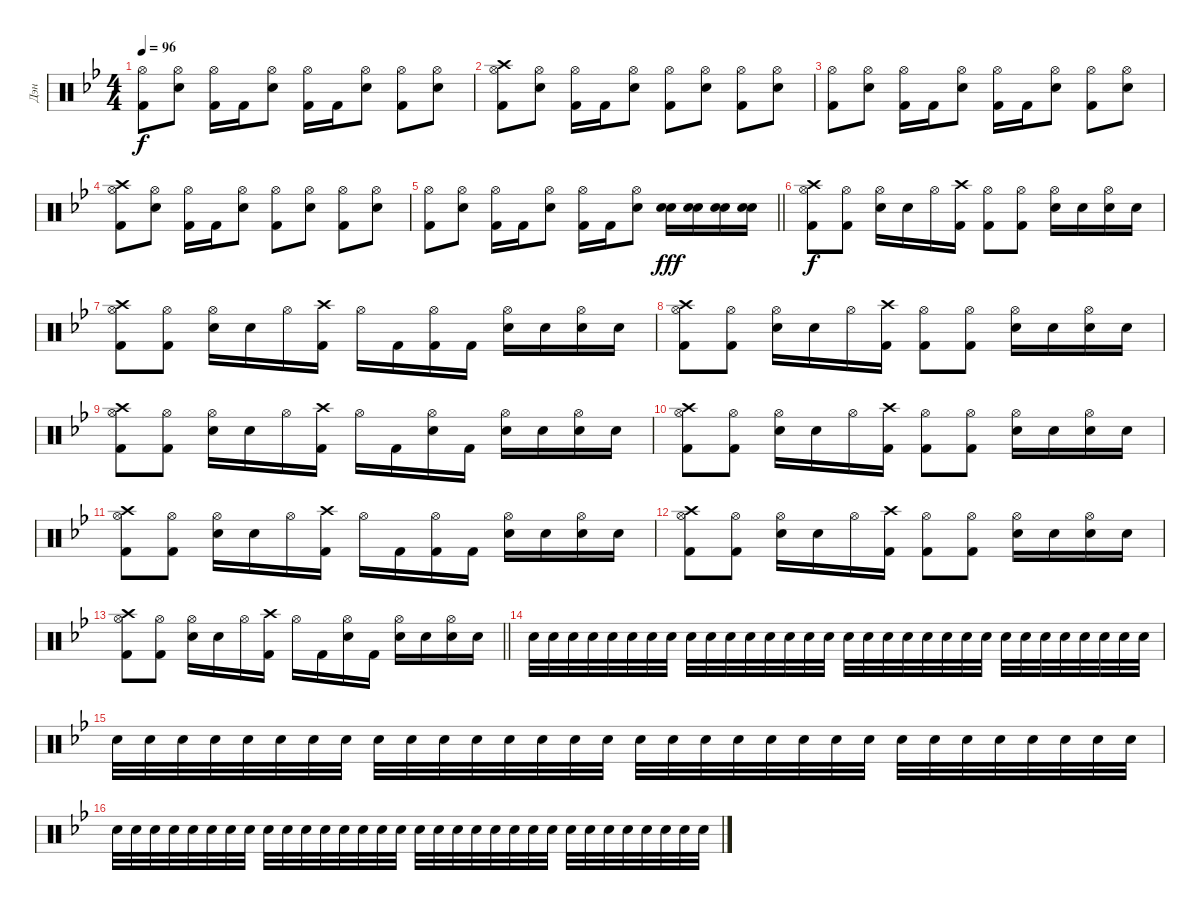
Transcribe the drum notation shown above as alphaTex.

\track ("Дэн" "Дэн") {instrument percussion}
\staff {score}
\articulation defaults
\ts (4 4)
\tempo 96
\clef neutral
\ks gminor
("Hi-Hat (open)" "Kick (hit) 2").8{dy f} ("Hi-Hat (open)" "Electric Snare (hit)").8 ("Hi-Hat (open)" "Kick (hit) 2").16 "Kick (hit) 2".16 ("Hi-Hat (open)" "Electric Snare (hit)").8 ("Hi-Hat (open)" "Kick (hit) 2").16 "Kick (hit) 2".16 ("Hi-Hat (open)" "Electric Snare (hit)").8 ("Hi-Hat (open)" "Kick (hit) 2").8 ("Hi-Hat (open)" "Electric Snare (hit)").8 |
("Crash high (hit)" "Hi-Hat (open)" "Kick (hit) 2").8 ("Hi-Hat (open)" "Electric Snare (hit)").8 ("Hi-Hat (open)" "Kick (hit) 2").16 "Kick (hit) 2".16 ("Hi-Hat (open)" "Electric Snare (hit)").8 ("Hi-Hat (open)" "Kick (hit) 2").8 ("Hi-Hat (open)" "Electric Snare (hit)").8 ("Hi-Hat (open)" "Kick (hit) 2").8 ("Hi-Hat (open)" "Electric Snare (hit)").8 |
("Hi-Hat (open)" "Kick (hit) 2").8 ("Hi-Hat (open)" "Electric Snare (hit)").8 ("Hi-Hat (open)" "Kick (hit) 2").16 "Kick (hit) 2".16 ("Hi-Hat (open)" "Electric Snare (hit)").8 ("Hi-Hat (open)" "Kick (hit) 2").16 "Kick (hit) 2".16 ("Hi-Hat (open)" "Electric Snare (hit)").8 ("Hi-Hat (open)" "Kick (hit) 2").8 ("Hi-Hat (open)" "Electric Snare (hit)").8 |
("Crash high (hit)" "Hi-Hat (open)" "Kick (hit) 2").8 ("Hi-Hat (open)" "Electric Snare (hit)").8 ("Hi-Hat (open)" "Kick (hit) 2").16 "Kick (hit) 2".16 ("Hi-Hat (open)" "Electric Snare (hit)").8 ("Hi-Hat (open)" "Kick (hit) 2").8 ("Hi-Hat (open)" "Electric Snare (hit)").8 ("Hi-Hat (open)" "Kick (hit) 2").8 ("Hi-Hat (open)" "Electric Snare (hit)").8 |
\barLineRight lightlight
("Hi-Hat (open)" "Kick (hit) 2").8 ("Hi-Hat (open)" "Electric Snare (hit)").8 ("Hi-Hat (open)" "Kick (hit) 2").16 "Kick (hit) 2".16 ("Hi-Hat (open)" "Electric Snare (hit)").8 ("Hi-Hat (open)" "Kick (hit) 2").16 "Kick (hit) 2".16 ("Hi-Hat (open)" "Electric Snare (hit)").8 ("Electric Snare (hit)" "Electric Snare (hit)").16{dy fff} ("Electric Snare (hit)" "Electric Snare (hit)").16 ("Electric Snare (hit)" "Electric Snare (hit)").16 ("Electric Snare (hit)" "Electric Snare (hit)").16 |
("Crash high (hit)" "Hi-Hat (open)" "Kick (hit) 2").8{dy f} ("Hi-Hat (open)" "Kick (hit) 2").8 ("Hi-Hat (open)" "Electric Snare (hit)").16 "Electric Snare (hit)".16 "Hi-Hat (open)".16 ("Crash high (hit)" "Kick (hit) 2").16 ("Hi-Hat (open)" "Kick (hit) 2").8 ("Hi-Hat (open)" "Kick (hit) 2").8 ("Hi-Hat (open)" "Electric Snare (hit)").16 "Electric Snare (hit)".16 ("Hi-Hat (open)" "Electric Snare (hit)").16 "Electric Snare (hit)".16 |
("Crash high (hit)" "Hi-Hat (open)" "Kick (hit) 2").8 ("Hi-Hat (open)" "Kick (hit) 2").8 ("Hi-Hat (open)" "Electric Snare (hit)").16 "Electric Snare (hit)".16 "Hi-Hat (open)".16 ("Crash high (hit)" "Kick (hit) 2").16 "Hi-Hat (open)".16 "Kick (hit) 2".16 ("Hi-Hat (open)" "Kick (hit) 2").16 "Kick (hit) 2".16 ("Hi-Hat (open)" "Electric Snare (hit)").16 "Electric Snare (hit)".16 ("Hi-Hat (open)" "Electric Snare (hit)").16 "Electric Snare (hit)".16 |
("Crash high (hit)" "Hi-Hat (open)" "Kick (hit) 2").8 ("Hi-Hat (open)" "Kick (hit) 2").8 ("Hi-Hat (open)" "Electric Snare (hit)").16 "Electric Snare (hit)".16 "Hi-Hat (open)".16 ("Crash high (hit)" "Kick (hit) 2").16 ("Hi-Hat (open)" "Kick (hit) 2").8 ("Hi-Hat (open)" "Kick (hit) 2").8 ("Hi-Hat (open)" "Electric Snare (hit)").16 "Electric Snare (hit)".16 ("Hi-Hat (open)" "Electric Snare (hit)").16 "Electric Snare (hit)".16 |
("Crash high (hit)" "Hi-Hat (open)" "Kick (hit) 2").8 ("Hi-Hat (open)" "Kick (hit) 2").8 ("Hi-Hat (open)" "Electric Snare (hit)").16 "Electric Snare (hit)".16 "Hi-Hat (open)".16 ("Crash high (hit)" "Kick (hit) 2").16 "Hi-Hat (open)".16 "Kick (hit) 2".16 ("Hi-Hat (open)" "Electric Snare (hit)").16 "Kick (hit) 2".16 ("Hi-Hat (open)" "Electric Snare (hit)").16 "Electric Snare (hit)".16 ("Hi-Hat (open)" "Electric Snare (hit)").16 "Electric Snare (hit)".16 |
("Crash high (hit)" "Hi-Hat (open)" "Kick (hit) 2").8 ("Hi-Hat (open)" "Kick (hit) 2").8 ("Hi-Hat (open)" "Electric Snare (hit)").16 "Electric Snare (hit)".16 "Hi-Hat (open)".16 ("Crash high (hit)" "Kick (hit) 2").16 ("Hi-Hat (open)" "Kick (hit) 2").8 ("Hi-Hat (open)" "Kick (hit) 2").8 ("Hi-Hat (open)" "Electric Snare (hit)").16 "Electric Snare (hit)".16 ("Hi-Hat (open)" "Electric Snare (hit)").16 "Electric Snare (hit)".16 |
("Crash high (hit)" "Hi-Hat (open)" "Kick (hit) 2").8 ("Hi-Hat (open)" "Kick (hit) 2").8 ("Hi-Hat (open)" "Electric Snare (hit)").16 "Electric Snare (hit)".16 "Hi-Hat (open)".16 ("Crash high (hit)" "Kick (hit) 2").16 "Hi-Hat (open)".16 "Kick (hit) 2".16 ("Hi-Hat (open)" "Kick (hit) 2").16 "Kick (hit) 2".16 ("Hi-Hat (open)" "Electric Snare (hit)").16 "Electric Snare (hit)".16 ("Hi-Hat (open)" "Electric Snare (hit)").16 "Electric Snare (hit)".16 |
("Crash high (hit)" "Hi-Hat (open)" "Kick (hit) 2").8 ("Hi-Hat (open)" "Kick (hit) 2").8 ("Hi-Hat (open)" "Electric Snare (hit)").16 "Electric Snare (hit)".16 "Hi-Hat (open)".16 ("Crash high (hit)" "Kick (hit) 2").16 ("Hi-Hat (open)" "Kick (hit) 2").8 ("Hi-Hat (open)" "Kick (hit) 2").8 ("Hi-Hat (open)" "Electric Snare (hit)").16 "Electric Snare (hit)".16 ("Hi-Hat (open)" "Electric Snare (hit)").16 "Electric Snare (hit)".16 |
\barLineRight lightlight
("Crash high (hit)" "Hi-Hat (open)" "Kick (hit) 2").8 ("Hi-Hat (open)" "Kick (hit) 2").8 ("Hi-Hat (open)" "Electric Snare (hit)").16 "Electric Snare (hit)".16 "Hi-Hat (open)".16 ("Crash high (hit)" "Kick (hit) 2").16 "Hi-Hat (open)".16 "Kick (hit) 2".16 ("Hi-Hat (open)" "Electric Snare (hit)").16 "Kick (hit) 2".16 ("Hi-Hat (open)" "Electric Snare (hit)").16 "Electric Snare (hit)".16 ("Hi-Hat (open)" "Electric Snare (hit)").16 "Electric Snare (hit)".16{volume 2} |
"Electric Snare (hit)".32{volume 10} "Electric Snare (hit)".32 "Electric Snare (hit)".32 "Electric Snare (hit)".32 "Electric Snare (hit)".32 "Electric Snare (hit)".32 "Electric Snare (hit)".32 "Electric Snare (hit)".32 "Electric Snare (hit)".32 "Electric Snare (hit)".32 "Electric Snare (hit)".32 "Electric Snare (hit)".32 "Electric Snare (hit)".32 "Electric Snare (hit)".32 "Electric Snare (hit)".32 "Electric Snare (hit)".32 "Electric Snare (hit)".32 "Electric Snare (hit)".32 "Electric Snare (hit)".32 "Electric Snare (hit)".32 "Electric Snare (hit)".32 "Electric Snare (hit)".32 "Electric Snare (hit)".32 "Electric Snare (hit)".32 "Electric Snare (hit)".32 "Electric Snare (hit)".32 "Electric Snare (hit)".32 "Electric Snare (hit)".32 "Electric Snare (hit)".32 "Electric Snare (hit)".32 "Electric Snare (hit)".32 "Electric Snare (hit)".32 |
"Electric Snare (hit)".32 "Electric Snare (hit)".32 "Electric Snare (hit)".32 "Electric Snare (hit)".32 "Electric Snare (hit)".32 "Electric Snare (hit)".32 "Electric Snare (hit)".32 "Electric Snare (hit)".32 "Electric Snare (hit)".32 "Electric Snare (hit)".32 "Electric Snare (hit)".32 "Electric Snare (hit)".32 "Electric Snare (hit)".32 "Electric Snare (hit)".32 "Electric Snare (hit)".32 "Electric Snare (hit)".32 "Electric Snare (hit)".32 "Electric Snare (hit)".32 "Electric Snare (hit)".32 "Electric Snare (hit)".32 "Electric Snare (hit)".32 "Electric Snare (hit)".32 "Electric Snare (hit)".32 "Electric Snare (hit)".32 "Electric Snare (hit)".32 "Electric Snare (hit)".32 "Electric Snare (hit)".32 "Electric Snare (hit)".32 "Electric Snare (hit)".32 "Electric Snare (hit)".32 "Electric Snare (hit)".32 "Electric Snare (hit)".32 |
"Electric Snare (hit)".32 "Electric Snare (hit)".32 "Electric Snare (hit)".32 "Electric Snare (hit)".32 "Electric Snare (hit)".32 "Electric Snare (hit)".32 "Electric Snare (hit)".32 "Electric Snare (hit)".32 "Electric Snare (hit)".32 "Electric Snare (hit)".32 "Electric Snare (hit)".32 "Electric Snare (hit)".32 "Electric Snare (hit)".32 "Electric Snare (hit)".32 "Electric Snare (hit)".32 "Electric Snare (hit)".32 "Electric Snare (hit)".32 "Electric Snare (hit)".32 "Electric Snare (hit)".32 "Electric Snare (hit)".32 "Electric Snare (hit)".32 "Electric Snare (hit)".32 "Electric Snare (hit)".32 "Electric Snare (hit)".32 "Electric Snare (hit)".32 "Electric Snare (hit)".32 "Electric Snare (hit)".32 "Electric Snare (hit)".32 "Electric Snare (hit)".32 "Electric Snare (hit)".32 "Electric Snare (hit)".32 "Electric Snare (hit)".32
